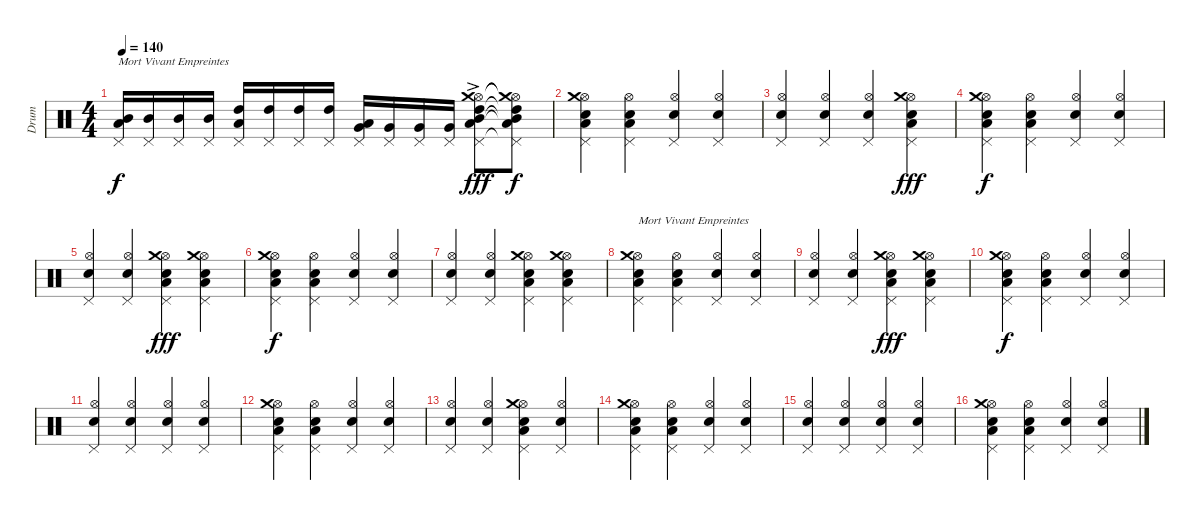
\track ("Drum" "Drum") {instrument percussion}
\staff {score}
\articulation defaults
\ts (4 4)
\tempo 140
\clef neutral
\ks c
("Mid Tom (hit)" "Low Tom (hit)" "Pedal Hi-Hat (hit)").16{txt "Mort Vivant Empreintes" dy f} ("Mid Tom (hit)" "Pedal Hi-Hat (hit)").16 ("Mid Tom (hit)" "Pedal Hi-Hat (hit)").16 ("Mid Tom (hit)" "Pedal Hi-Hat (hit)").16 ("High Tom (hit)" "Low Tom (hit)" "Pedal Hi-Hat (hit)").16 ("High Tom (hit)" "Pedal Hi-Hat (hit)").16 ("High Tom (hit)" "Pedal Hi-Hat (hit)").16 ("High Tom (hit)" "Pedal Hi-Hat (hit)").16 ("Very Low Tom (hit)" "Low Tom (hit)" "Pedal Hi-Hat (hit)").16 ("Very Low Tom (hit)" "Pedal Hi-Hat (hit)").16 ("Very Low Tom (hit)" "Pedal Hi-Hat (hit)").16 ("Very Low Tom (hit)" "Pedal Hi-Hat (hit)").16 ("Hi-Hat (open)"{ac} "Mid Tom (hit)"{ac} "Low Tom (hit)"{ac} "High Tom (hit)" "Crash medium (hit)" "Pedal Hi-Hat (hit)"{ac}).8{dy fff} ("Hi-Hat (open)"{t} "Mid Tom (hit)"{t} "Low Tom (hit)"{t} "High Tom (hit)"{t} "Crash medium (hit)"{t} "Pedal Hi-Hat (hit)"{t}).8{dy f} |
("Hi-Hat (open)" "Low Tom (hit)" "Snare (hit) 2" "Crash medium (hit)" "Pedal Hi-Hat (hit)").4 ("Hi-Hat (open)" "Low Tom (hit)" "Snare (hit) 2" "Pedal Hi-Hat (hit)").4 ("Hi-Hat (open)" "Snare (hit) 2" "Pedal Hi-Hat (hit)").4 ("Hi-Hat (open)" "Snare (hit) 2" "Pedal Hi-Hat (hit)").4 |
("Hi-Hat (open)" "Snare (hit) 2" "Pedal Hi-Hat (hit)").4 ("Hi-Hat (open)" "Snare (hit) 2" "Pedal Hi-Hat (hit)").4 ("Hi-Hat (open)" "Snare (hit) 2" "Pedal Hi-Hat (hit)").4 ("Hi-Hat (open)" "Low Tom (hit)" "Snare (hit) 2" "Crash medium (hit)" "Pedal Hi-Hat (hit)").4{dy fff} |
("Hi-Hat (open)" "Low Tom (hit)" "Snare (hit) 2" "Crash medium (hit)" "Pedal Hi-Hat (hit)").4{dy f} ("Hi-Hat (open)" "Low Tom (hit)" "Snare (hit) 2" "Pedal Hi-Hat (hit)").4 ("Hi-Hat (open)" "Snare (hit) 2" "Pedal Hi-Hat (hit)").4 ("Hi-Hat (open)" "Snare (hit) 2" "Pedal Hi-Hat (hit)").4 |
("Hi-Hat (open)" "Snare (hit) 2" "Pedal Hi-Hat (hit)").4 ("Hi-Hat (open)" "Snare (hit) 2" "Pedal Hi-Hat (hit)").4 ("Hi-Hat (open)" "Low Tom (hit)" "Snare (hit) 2" "Crash medium (hit)" "Pedal Hi-Hat (hit)").4{dy fff} ("Hi-Hat (open)" "Low Tom (hit)" "Snare (hit) 2" "Crash medium (hit)" "Pedal Hi-Hat (hit)").4 |
("Hi-Hat (open)" "Low Tom (hit)" "Snare (hit) 2" "Crash medium (hit)" "Pedal Hi-Hat (hit)").4{dy f} ("Hi-Hat (open)" "Low Tom (hit)" "Snare (hit) 2" "Pedal Hi-Hat (hit)").4 ("Hi-Hat (open)" "Snare (hit) 2" "Pedal Hi-Hat (hit)").4 ("Hi-Hat (open)" "Snare (hit) 2" "Pedal Hi-Hat (hit)").4 |
("Hi-Hat (open)" "Snare (hit) 2" "Pedal Hi-Hat (hit)").4 ("Hi-Hat (open)" "Snare (hit) 2" "Pedal Hi-Hat (hit)").4 ("Hi-Hat (open)" "Low Tom (hit)" "Snare (hit) 2" "Crash medium (hit)" "Pedal Hi-Hat (hit)").4 ("Hi-Hat (open)" "Low Tom (hit)" "Snare (hit) 2" "Crash medium (hit)" "Pedal Hi-Hat (hit)").4 |
("Hi-Hat (open)" "Low Tom (hit)" "Snare (hit) 2" "Crash medium (hit)" "Pedal Hi-Hat (hit)").4{txt "Mort Vivant Empreintes"} ("Hi-Hat (open)" "Low Tom (hit)" "Snare (hit) 2" "Pedal Hi-Hat (hit)").4 ("Hi-Hat (open)" "Snare (hit) 2" "Pedal Hi-Hat (hit)").4 ("Hi-Hat (open)" "Snare (hit) 2" "Pedal Hi-Hat (hit)").4 |
("Hi-Hat (open)" "Snare (hit) 2" "Pedal Hi-Hat (hit)").4 ("Hi-Hat (open)" "Snare (hit) 2" "Pedal Hi-Hat (hit)").4 ("Hi-Hat (open)" "Low Tom (hit)" "Snare (hit) 2" "Crash medium (hit)" "Pedal Hi-Hat (hit)").4{dy fff} ("Hi-Hat (open)" "Low Tom (hit)" "Snare (hit) 2" "Crash medium (hit)" "Pedal Hi-Hat (hit)").4 |
("Hi-Hat (open)" "Low Tom (hit)" "Snare (hit) 2" "Crash medium (hit)" "Pedal Hi-Hat (hit)").4{dy f} ("Hi-Hat (open)" "Low Tom (hit)" "Snare (hit) 2" "Pedal Hi-Hat (hit)").4 ("Hi-Hat (open)" "Snare (hit) 2" "Pedal Hi-Hat (hit)").4 ("Hi-Hat (open)" "Snare (hit) 2" "Pedal Hi-Hat (hit)").4 |
("Hi-Hat (open)" "Snare (hit) 2" "Pedal Hi-Hat (hit)").4 ("Hi-Hat (open)" "Snare (hit) 2" "Pedal Hi-Hat (hit)").4 ("Hi-Hat (open)" "Snare (hit) 2" "Pedal Hi-Hat (hit)").4 ("Hi-Hat (open)" "Snare (hit) 2" "Pedal Hi-Hat (hit)").4 |
("Hi-Hat (open)" "Low Tom (hit)" "Snare (hit) 2" "Crash medium (hit)" "Pedal Hi-Hat (hit)").4 ("Hi-Hat (open)" "Low Tom (hit)" "Snare (hit) 2" "Pedal Hi-Hat (hit)").4 ("Hi-Hat (open)" "Snare (hit) 2" "Pedal Hi-Hat (hit)").4 ("Hi-Hat (open)" "Snare (hit) 2" "Pedal Hi-Hat (hit)").4 |
("Hi-Hat (open)" "Snare (hit) 2" "Pedal Hi-Hat (hit)").4 ("Hi-Hat (open)" "Snare (hit) 2" "Pedal Hi-Hat (hit)").4 ("Hi-Hat (open)" "Low Tom (hit)" "Snare (hit) 2" "Crash medium (hit)" "Pedal Hi-Hat (hit)").4 ("Hi-Hat (open)" "Snare (hit) 2" "Pedal Hi-Hat (hit)").4 |
("Hi-Hat (open)" "Low Tom (hit)" "Snare (hit) 2" "Crash medium (hit)" "Pedal Hi-Hat (hit)").4 ("Hi-Hat (open)" "Low Tom (hit)" "Snare (hit) 2" "Pedal Hi-Hat (hit)").4 ("Hi-Hat (open)" "Snare (hit) 2" "Pedal Hi-Hat (hit)").4 ("Hi-Hat (open)" "Snare (hit) 2" "Pedal Hi-Hat (hit)").4 |
("Hi-Hat (open)" "Snare (hit) 2" "Pedal Hi-Hat (hit)").4 ("Hi-Hat (open)" "Snare (hit) 2" "Pedal Hi-Hat (hit)").4 ("Hi-Hat (open)" "Snare (hit) 2" "Pedal Hi-Hat (hit)").4 ("Hi-Hat (open)" "Snare (hit) 2" "Pedal Hi-Hat (hit)").4 |
("Hi-Hat (open)" "Low Tom (hit)" "Snare (hit) 2" "Crash medium (hit)" "Pedal Hi-Hat (hit)").4 ("Hi-Hat (open)" "Low Tom (hit)" "Snare (hit) 2" "Pedal Hi-Hat (hit)").4 ("Hi-Hat (open)" "Snare (hit) 2" "Pedal Hi-Hat (hit)").4 ("Hi-Hat (open)" "Snare (hit) 2" "Pedal Hi-Hat (hit)").4
